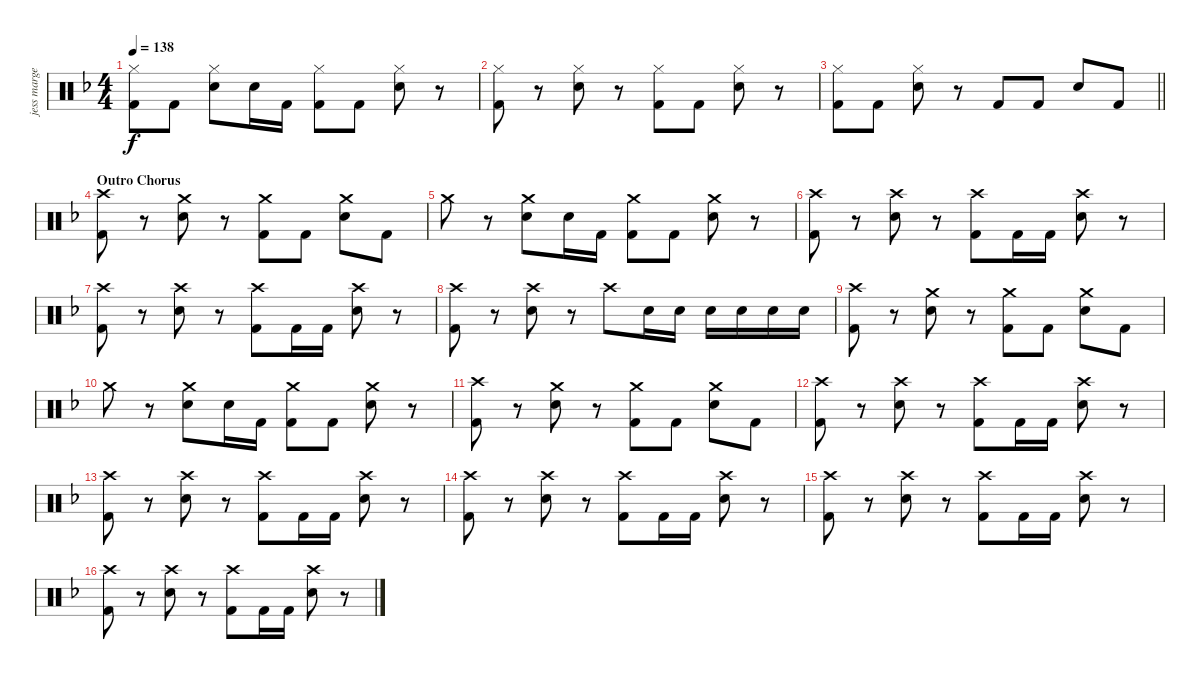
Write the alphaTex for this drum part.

\track ("jess margera" "jess marge") {instrument percussion}
\staff {score}
\articulation defaults
\ts (4 4)
\tempo 138
\clef neutral
\ks f
("Hi-Hat (closed)" "Kick (hit) 2").8{dy f} "Kick (hit) 2".8 ("Hi-Hat (closed)" "Electric Snare (hit)").8 "Electric Snare (hit)".16 "Kick (hit) 2".16 ("Hi-Hat (closed)" "Kick (hit) 2").8 "Kick (hit) 2".8 ("Hi-Hat (closed)" "Electric Snare (hit)").8 r.8 |
("Hi-Hat (closed)" "Kick (hit) 2").8 r.8 ("Hi-Hat (closed)" "Electric Snare (hit)").8 r.8 ("Hi-Hat (closed)" "Kick (hit) 2").8 "Kick (hit) 2".8 ("Hi-Hat (closed)" "Electric Snare (hit)").8 r.8 |
\barLineRight lightlight
("Hi-Hat (closed)" "Kick (hit) 2").8 "Kick (hit) 2".8 ("Hi-Hat (closed)" "Electric Snare (hit)").8 r.8 "Kick (hit) 2".8 "Kick (hit) 2".8 "Electric Snare (hit)".8 "Kick (hit) 2".8 |
\section ("" "Outro Chorus")
("Crash high (hit)" "Kick (hit) 2").8 r.8 ("Crash medium (hit)" "Electric Snare (hit)").8 r.8 ("Crash medium (hit)" "Kick (hit) 2").8 "Kick (hit) 2".8 ("Crash medium (hit)" "Electric Snare (hit)").8 "Kick (hit) 2".8 |
"Crash medium (hit)".8 r.8 ("Crash medium (hit)" "Electric Snare (hit)").8 "Electric Snare (hit)".16 "Kick (hit) 2".16 ("Crash medium (hit)" "Kick (hit) 2").8 "Kick (hit) 2".8 ("Crash medium (hit)" "Electric Snare (hit)").8 r.8 |
("Crash high (hit)" "Kick (hit) 2").8 r.8 ("Crash high (hit)" "Electric Snare (hit)").8 r.8 ("Crash high (hit)" "Kick (hit) 2").8 "Kick (hit) 2".16 "Kick (hit) 2".16 ("Crash high (hit)" "Electric Snare (hit)").8 r.8 |
("Crash high (hit)" "Kick (hit) 2").8 r.8 ("Crash high (hit)" "Electric Snare (hit)").8 r.8 ("Crash high (hit)" "Kick (hit) 2").8 "Kick (hit) 2".16 "Kick (hit) 2".16 ("Crash high (hit)" "Electric Snare (hit)").8 r.8 |
("Crash high (hit)" "Kick (hit) 2").8 r.8 ("Crash high (hit)" "Electric Snare (hit)").8 r.8 "Crash high (hit)".8 "Electric Snare (hit)".16 "Electric Snare (hit)".16 "Electric Snare (hit)".16 "Electric Snare (hit)".16 "Electric Snare (hit)".16 "Electric Snare (hit)".16 |
("Crash high (hit)" "Kick (hit) 2").8 r.8 ("Crash medium (hit)" "Electric Snare (hit)").8 r.8 ("Crash medium (hit)" "Kick (hit) 2").8 "Kick (hit) 2".8 ("Crash medium (hit)" "Electric Snare (hit)").8 "Kick (hit) 2".8 |
"Crash medium (hit)".8 r.8 ("Crash medium (hit)" "Electric Snare (hit)").8 "Electric Snare (hit)".16 "Kick (hit) 2".16 ("Crash medium (hit)" "Kick (hit) 2").8 "Kick (hit) 2".8 ("Crash medium (hit)" "Electric Snare (hit)").8 r.8 |
("Crash high (hit)" "Kick (hit) 2").8 r.8 ("Crash medium (hit)" "Electric Snare (hit)").8 r.8 ("Crash medium (hit)" "Kick (hit) 2").8 "Kick (hit) 2".8 ("Crash medium (hit)" "Electric Snare (hit)").8 "Kick (hit) 2".8 |
("Crash high (hit)" "Kick (hit) 2").8 r.8 ("Crash high (hit)" "Electric Snare (hit)").8 r.8 ("Crash high (hit)" "Kick (hit) 2").8 "Kick (hit) 2".16 "Kick (hit) 2".16 ("Crash high (hit)" "Electric Snare (hit)").8 r.8 |
("Crash high (hit)" "Kick (hit) 2").8 r.8 ("Crash high (hit)" "Electric Snare (hit)").8 r.8 ("Crash high (hit)" "Kick (hit) 2").8 "Kick (hit) 2".16 "Kick (hit) 2".16 ("Crash high (hit)" "Electric Snare (hit)").8 r.8 |
("Crash high (hit)" "Kick (hit) 2").8 r.8 ("Crash high (hit)" "Electric Snare (hit)").8 r.8 ("Crash high (hit)" "Kick (hit) 2").8 "Kick (hit) 2".16 "Kick (hit) 2".16 ("Crash high (hit)" "Electric Snare (hit)").8 r.8 |
("Crash high (hit)" "Kick (hit) 2").8 r.8 ("Crash high (hit)" "Electric Snare (hit)").8 r.8 ("Crash high (hit)" "Kick (hit) 2").8 "Kick (hit) 2".16 "Kick (hit) 2".16 ("Crash high (hit)" "Electric Snare (hit)").8 r.8 |
("Crash high (hit)" "Kick (hit) 2").8 r.8 ("Crash high (hit)" "Electric Snare (hit)").8 r.8 ("Crash high (hit)" "Kick (hit) 2").8 "Kick (hit) 2".16 "Kick (hit) 2".16 ("Crash high (hit)" "Electric Snare (hit)").8 r.8
